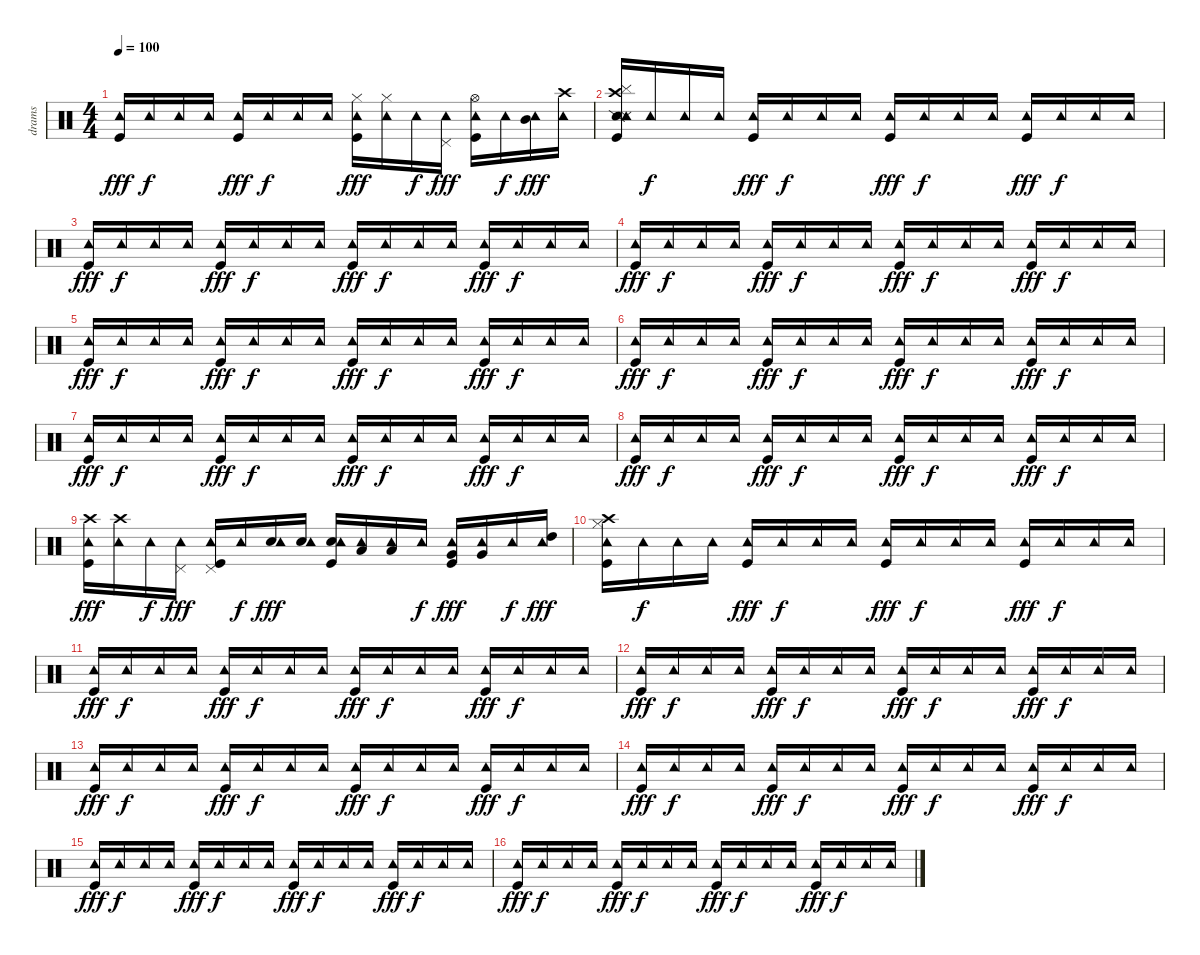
\track ("drams" "drams") {instrument percussion}
\staff {score}
\articulation defaults
\ts (4 4)
\tempo 100
\clef neutral
\ks c
("Kick (hit)" "Tambourine (hit)").16{dy fff} "Tambourine (hit)".16{dy f} "Tambourine (hit)".16 "Tambourine (hit)".16 ("Kick (hit)" "Tambourine (hit)").16{dy fff} "Tambourine (hit)".16{dy f} "Tambourine (hit)".16 "Tambourine (hit)".16 ("Kick (hit)" "Hi-Hat (closed)" "Tambourine (hit)").16{dy fff} ("Hi-Hat (closed)" "Tambourine (hit)").16 "Tambourine (hit)".16{dy f} ("Pedal Hi-Hat (hit)" "Tambourine (hit)").16{dy fff} ("Kick (hit)" "Hi-Hat (open)" "Tambourine (hit)").16 "Tambourine (hit)".16{dy f} ("Mid Tom (hit)" "Tambourine (hit)").16{dy fff} ("Crash high (hit)" "Tambourine (hit)").16 |
("Cymbal (hit)" "Snare (side stick) 2" "Metronome (hit)" "Kick (hit)" "Crash high (hit)" "Tambourine (hit)").16 "Tambourine (hit)".16{dy f} "Tambourine (hit)".16 "Tambourine (hit)".16 ("Kick (hit)" "Tambourine (hit)").16{dy fff} "Tambourine (hit)".16{dy f} "Tambourine (hit)".16 "Tambourine (hit)".16 ("Kick (hit)" "Tambourine (hit)").16{dy fff} "Tambourine (hit)".16{dy f} "Tambourine (hit)".16 "Tambourine (hit)".16 ("Kick (hit)" "Tambourine (hit)").16{dy fff} "Tambourine (hit)".16{dy f} "Tambourine (hit)".16 "Tambourine (hit)".16 |
("Kick (hit)" "Tambourine (hit)").16{dy fff} "Tambourine (hit)".16{dy f} "Tambourine (hit)".16 "Tambourine (hit)".16 ("Kick (hit)" "Tambourine (hit)").16{dy fff} "Tambourine (hit)".16{dy f} "Tambourine (hit)".16 "Tambourine (hit)".16 ("Kick (hit)" "Tambourine (hit)").16{dy fff} "Tambourine (hit)".16{dy f} "Tambourine (hit)".16 "Tambourine (hit)".16 ("Kick (hit)" "Tambourine (hit)").16{dy fff} "Tambourine (hit)".16{dy f} "Tambourine (hit)".16 "Tambourine (hit)".16 |
("Kick (hit)" "Tambourine (hit)").16{dy fff} "Tambourine (hit)".16{dy f} "Tambourine (hit)".16 "Tambourine (hit)".16 ("Kick (hit)" "Tambourine (hit)").16{dy fff} "Tambourine (hit)".16{dy f} "Tambourine (hit)".16 "Tambourine (hit)".16 ("Kick (hit)" "Tambourine (hit)").16{dy fff} "Tambourine (hit)".16{dy f} "Tambourine (hit)".16 "Tambourine (hit)".16 ("Kick (hit)" "Tambourine (hit)").16{dy fff} "Tambourine (hit)".16{dy f} "Tambourine (hit)".16 "Tambourine (hit)".16 |
("Kick (hit)" "Tambourine (hit)").16{dy fff} "Tambourine (hit)".16{dy f} "Tambourine (hit)".16 "Tambourine (hit)".16 ("Kick (hit)" "Tambourine (hit)").16{dy fff} "Tambourine (hit)".16{dy f} "Tambourine (hit)".16 "Tambourine (hit)".16 ("Kick (hit)" "Tambourine (hit)").16{dy fff} "Tambourine (hit)".16{dy f} "Tambourine (hit)".16 "Tambourine (hit)".16 ("Kick (hit)" "Tambourine (hit)").16{dy fff} "Tambourine (hit)".16{dy f} "Tambourine (hit)".16 "Tambourine (hit)".16 |
("Kick (hit)" "Tambourine (hit)").16{dy fff} "Tambourine (hit)".16{dy f} "Tambourine (hit)".16 "Tambourine (hit)".16 ("Kick (hit)" "Tambourine (hit)").16{dy fff} "Tambourine (hit)".16{dy f} "Tambourine (hit)".16 "Tambourine (hit)".16 ("Kick (hit)" "Tambourine (hit)").16{dy fff} "Tambourine (hit)".16{dy f} "Tambourine (hit)".16 "Tambourine (hit)".16 ("Kick (hit)" "Tambourine (hit)").16{dy fff} "Tambourine (hit)".16{dy f} "Tambourine (hit)".16 "Tambourine (hit)".16 |
("Kick (hit)" "Tambourine (hit)").16{dy fff} "Tambourine (hit)".16{dy f} "Tambourine (hit)".16 "Tambourine (hit)".16 ("Kick (hit)" "Tambourine (hit)").16{dy fff} "Tambourine (hit)".16{dy f} "Tambourine (hit)".16 "Tambourine (hit)".16 ("Kick (hit)" "Tambourine (hit)").16{dy fff} "Tambourine (hit)".16{dy f} "Tambourine (hit)".16 "Tambourine (hit)".16 ("Kick (hit)" "Tambourine (hit)").16{dy fff} "Tambourine (hit)".16{dy f} "Tambourine (hit)".16 "Tambourine (hit)".16 |
("Tambourine (hit)" "Kick (hit)").16{dy fff} "Tambourine (hit)".16{dy f} "Tambourine (hit)".16 "Tambourine (hit)".16 ("Tambourine (hit)" "Kick (hit)").16{dy fff} "Tambourine (hit)".16{dy f} "Tambourine (hit)".16 "Tambourine (hit)".16 ("Tambourine (hit)" "Kick (hit)").16{dy fff} "Tambourine (hit)".16{dy f} "Tambourine (hit)".16 "Tambourine (hit)".16 ("Tambourine (hit)" "Kick (hit)").16{dy fff} "Tambourine (hit)".16{dy f} "Tambourine (hit)".16 "Tambourine (hit)".16 |
("Crash high (hit)" "Tambourine (hit)" "Kick (hit)").16{dy fff} ("Crash high (hit)" "Tambourine (hit)").16 "Tambourine (hit)".16{dy f} ("Pedal Hi-Hat (hit)" "Tambourine (hit)").16{dy fff} ("Pedal Hi-Hat (hit)" "Tambourine (hit)" "Kick (hit)").16 "Tambourine (hit)".16{dy f} ("Electric Snare (hit)" "Tambourine (hit)").16{dy fff} ("Electric Snare (hit)" "Tambourine (hit)").16 ("Electric Snare (hit)" "Tambourine (hit)" "Kick (hit)").16 ("Low Tom (hit)" "Tambourine (hit)").16 ("Low Tom (hit)" "Tambourine (hit)").16 "Tambourine (hit)".16{dy f} ("Very Low Tom (hit)" "Tambourine (hit)" "Kick (hit)").16{dy fff} ("Very Low Tom (hit)" "Tambourine (hit)").16 "Tambourine (hit)".16{dy f} ("High Tom (hit)" "Tambourine (hit)").16{dy fff} |
("Kick (hit)" "Hi-Hat (closed)" "Crash high (hit)" "Tambourine (hit)").16 "Tambourine (hit)".16{dy f} "Tambourine (hit)".16 "Tambourine (hit)".16 ("Kick (hit)" "Tambourine (hit)").16{dy fff} "Tambourine (hit)".16{dy f} "Tambourine (hit)".16 "Tambourine (hit)".16 ("Kick (hit)" "Tambourine (hit)").16{dy fff} "Tambourine (hit)".16{dy f} "Tambourine (hit)".16 "Tambourine (hit)".16 ("Kick (hit)" "Tambourine (hit)").16{dy fff} "Tambourine (hit)".16{dy f} "Tambourine (hit)".16 "Tambourine (hit)".16 |
("Kick (hit)" "Tambourine (hit)").16{dy fff} "Tambourine (hit)".16{dy f} "Tambourine (hit)".16 "Tambourine (hit)".16 ("Kick (hit)" "Tambourine (hit)").16{dy fff} "Tambourine (hit)".16{dy f} "Tambourine (hit)".16 "Tambourine (hit)".16 ("Kick (hit)" "Tambourine (hit)").16{dy fff} "Tambourine (hit)".16{dy f} "Tambourine (hit)".16 "Tambourine (hit)".16 ("Kick (hit)" "Tambourine (hit)").16{dy fff} "Tambourine (hit)".16{dy f} "Tambourine (hit)".16 "Tambourine (hit)".16 |
("Kick (hit)" "Tambourine (hit)").16{dy fff} "Tambourine (hit)".16{dy f} "Tambourine (hit)".16 "Tambourine (hit)".16 ("Kick (hit)" "Tambourine (hit)").16{dy fff} "Tambourine (hit)".16{dy f} "Tambourine (hit)".16 "Tambourine (hit)".16 ("Kick (hit)" "Tambourine (hit)").16{dy fff} "Tambourine (hit)".16{dy f} "Tambourine (hit)".16 "Tambourine (hit)".16 ("Kick (hit)" "Tambourine (hit)").16{dy fff} "Tambourine (hit)".16{dy f} "Tambourine (hit)".16 "Tambourine (hit)".16 |
("Kick (hit)" "Tambourine (hit)").16{dy fff} "Tambourine (hit)".16{dy f} "Tambourine (hit)".16 "Tambourine (hit)".16 ("Kick (hit)" "Tambourine (hit)").16{dy fff} "Tambourine (hit)".16{dy f} "Tambourine (hit)".16 "Tambourine (hit)".16 ("Kick (hit)" "Tambourine (hit)").16{dy fff} "Tambourine (hit)".16{dy f} "Tambourine (hit)".16 "Tambourine (hit)".16 ("Kick (hit)" "Tambourine (hit)").16{dy fff} "Tambourine (hit)".16{dy f} "Tambourine (hit)".16 "Tambourine (hit)".16 |
("Kick (hit)" "Tambourine (hit)").16{dy fff} "Tambourine (hit)".16{dy f} "Tambourine (hit)".16 "Tambourine (hit)".16 ("Kick (hit)" "Tambourine (hit)").16{dy fff} "Tambourine (hit)".16{dy f} "Tambourine (hit)".16 "Tambourine (hit)".16 ("Kick (hit)" "Tambourine (hit)").16{dy fff} "Tambourine (hit)".16{dy f} "Tambourine (hit)".16 "Tambourine (hit)".16 ("Kick (hit)" "Tambourine (hit)").16{dy fff} "Tambourine (hit)".16{dy f} "Tambourine (hit)".16 "Tambourine (hit)".16 |
("Kick (hit)" "Tambourine (hit)").16{dy fff} "Tambourine (hit)".16{dy f} "Tambourine (hit)".16 "Tambourine (hit)".16 ("Kick (hit)" "Tambourine (hit)").16{dy fff} "Tambourine (hit)".16{dy f} "Tambourine (hit)".16 "Tambourine (hit)".16 ("Kick (hit)" "Tambourine (hit)").16{dy fff} "Tambourine (hit)".16{dy f} "Tambourine (hit)".16 "Tambourine (hit)".16 ("Kick (hit)" "Tambourine (hit)").16{dy fff} "Tambourine (hit)".16{dy f} "Tambourine (hit)".16 "Tambourine (hit)".16 |
("Kick (hit)" "Tambourine (hit)").16{dy fff} "Tambourine (hit)".16{dy f} "Tambourine (hit)".16 "Tambourine (hit)".16 ("Kick (hit)" "Tambourine (hit)").16{dy fff} "Tambourine (hit)".16{dy f} "Tambourine (hit)".16 "Tambourine (hit)".16 ("Kick (hit)" "Tambourine (hit)").16{dy fff} "Tambourine (hit)".16{dy f} "Tambourine (hit)".16 "Tambourine (hit)".16 ("Kick (hit)" "Tambourine (hit)").16{dy fff} "Tambourine (hit)".16{dy f} "Tambourine (hit)".16 "Tambourine (hit)".16
